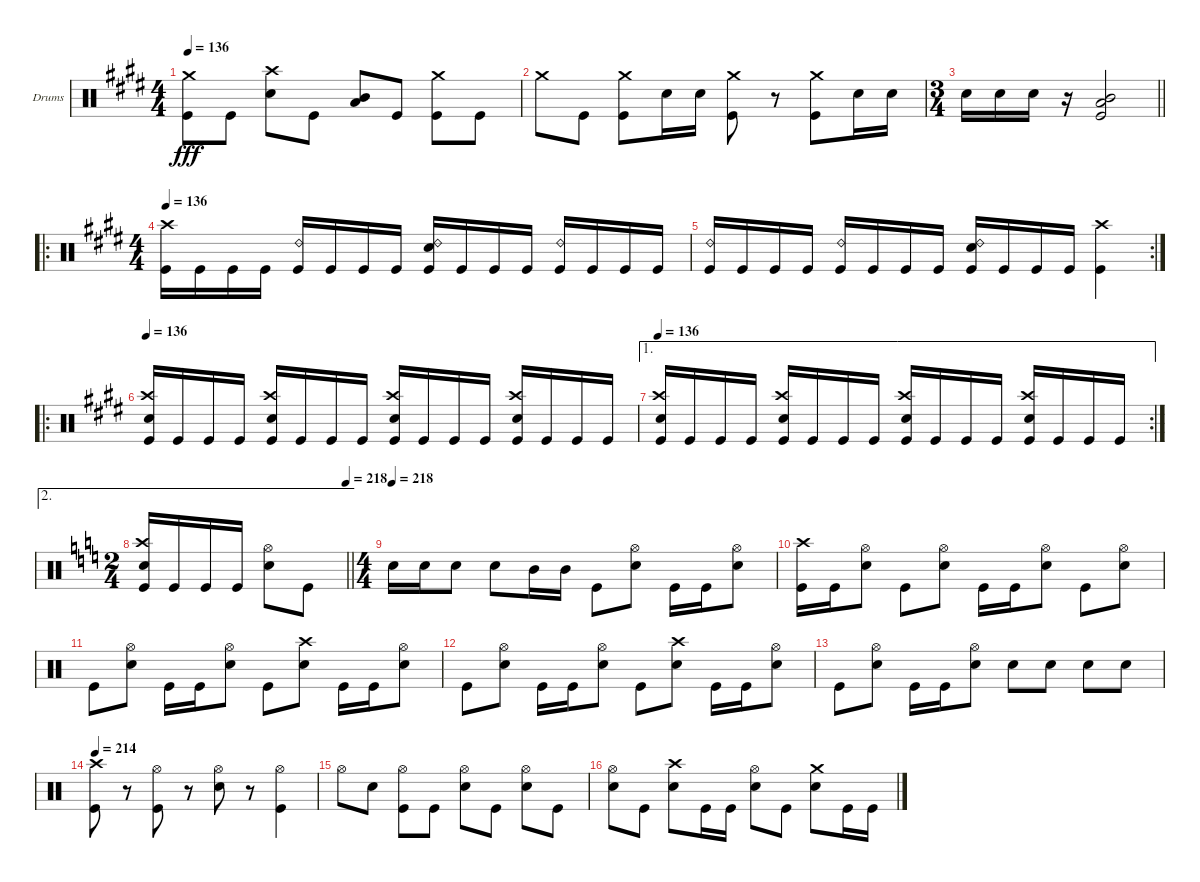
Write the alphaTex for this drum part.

\bracketExtendMode groupsimilarinstruments
\firstSystemTrackNameOrientation horizontal
\otherSystemsTrackNameOrientation horizontal
\track ("Drumkit" "Drums") {instrument percussion}
\staff {score}
\articulation defaults
\ts (4 4)
\tempo 136
\clef neutral
\ks e
("Crash medium (hit)" "Kick (hit)"{t}).8{dy fff} "Kick (hit)".8 ("Crash high (hit)" "Snare (hit) 2").8 "Kick (hit)".8 ("Mid Tom (hit)" "Low Tom (hit)").8 "Kick (hit)".8 ("Crash medium (hit)" "Kick (hit)").8 "Kick (hit)".8 |
"Crash medium (hit)".8 "Kick (hit)".8 ("Crash medium (hit)" "Kick (hit)").8 "Snare (hit) 2".16 "Snare (hit) 2".16 ("Crash medium (hit)" "Kick (hit)").8 r.8 ("Crash medium (hit)" "Kick (hit)").8 "Snare (hit) 2".16 "Snare (hit) 2".16 |
\ts (3 4)
\beaming (8 2 2 2)
\barLineRight lightlight "Snare (hit) 2".16 "Snare (hit) 2".16 "Snare (hit) 2".16
r.16 ("Mid Tom (hit)" "Low Tom (hit)" "Kick (hit)").2 |
\ro
\ts (4 4)
\beaming (8 2 2 2 2)
\tempo 136
("Crash high (hit)" "Kick (hit)").16 "Kick (hit)".16 "Kick (hit)".16 "Kick (hit)".16 ("Ride (bell) 2" "Kick (hit)").16 "Kick (hit)".16 "Kick (hit)".16 "Kick (hit)".16 ("Ride (bell) 2" "Snare (hit) 2" "Kick (hit)").16 "Kick (hit)".16 "Kick (hit)".16 "Kick (hit)".16 ("Ride (bell) 2" "Kick (hit)").16 "Kick (hit)".16 "Kick (hit)".16 "Kick (hit)".16 |
\rc 2
("Ride (bell) 2" "Kick (hit)").16 "Kick (hit)".16 "Kick (hit)".16 "Kick (hit)".16 ("Ride (bell) 2" "Kick (hit)").16 "Kick (hit)".16 "Kick (hit)".16 "Kick (hit)".16 ("Ride (bell) 2" "Snare (hit) 2" "Kick (hit)").16 "Kick (hit)".16 "Kick (hit)".16 "Kick (hit)".16 ("Crash high (hit)" "Kick (hit)").4 |
\ro
\tempo 136
("Crash high (hit)" "Snare (hit) 2" "Kick (hit)").16 "Kick (hit)".16 "Kick (hit)".16 "Kick (hit)".16 ("Crash high (hit)" "Snare (hit) 2" "Kick (hit)").16 "Kick (hit)".16 "Kick (hit)".16 "Kick (hit)".16 ("Crash high (hit)" "Snare (hit) 2" "Kick (hit)").16 "Kick (hit)".16 "Kick (hit)".16 "Kick (hit)".16 ("Crash high (hit)" "Snare (hit) 2" "Kick (hit)").16 "Kick (hit)".16 "Kick (hit)".16 "Kick (hit)".16 |
\ae 1
\rc 2
\tempo 136
("Crash high (hit)" "Snare (hit) 2" "Kick (hit)").16 "Kick (hit)".16 "Kick (hit)".16 "Kick (hit)".16 ("Crash high (hit)" "Snare (hit) 2" "Kick (hit)").16 "Kick (hit)".16 "Kick (hit)".16 "Kick (hit)".16 ("Crash high (hit)" "Snare (hit) 2" "Kick (hit)").16 "Kick (hit)".16 "Kick (hit)".16 "Kick (hit)".16 ("Crash high (hit)" "Snare (hit) 2" "Kick (hit)").16 "Kick (hit)".16 "Kick (hit)".16 "Kick (hit)".16 |
\ae 2
\ts (2 4)
\beaming (8 2 2)
\tempo (218 1)
\barLineRight lightlight
\ks c
("Crash high (hit)" "Snare (hit) 2" "Kick (hit)").16 "Kick (hit)".16 "Kick (hit)".16 "Kick (hit)".16 ("Hi-Hat (open)" "Snare (hit) 2").8 "Kick (hit)".8 |
\ts (4 4)
\beaming (8 2 2 2 2)
\tempo (218)
"Snare (hit) 2".16 "Snare (hit) 2".16 "Snare (hit) 2".8 "Snare (hit) 2".8 "Mid Tom (hit)".16 "Mid Tom (hit)".16 "Kick (hit)".8 ("Hi-Hat (open)" "Snare (hit) 2").8 "Kick (hit)".16 "Kick (hit)".16 ("Hi-Hat (open)" "Snare (hit) 2").8 |
("Crash high (hit)" "Kick (hit)").16 "Kick (hit)".16 ("Hi-Hat (open)" "Snare (hit) 2").8 "Kick (hit)".8 ("Hi-Hat (open)" "Snare (hit) 2").8 "Kick (hit)".16 "Kick (hit)".16 ("Hi-Hat (open)" "Snare (hit) 2").8 "Kick (hit)".8 ("Hi-Hat (open)" "Snare (hit) 2").8 |
"Kick (hit)".8 ("Hi-Hat (open)" "Snare (hit) 2").8 "Kick (hit)".16 "Kick (hit)".16 ("Hi-Hat (open)" "Snare (hit) 2").8 "Kick (hit)".8 ("Crash high (hit)" "Snare (hit) 2").8 "Kick (hit)".16 "Kick (hit)".16 ("Hi-Hat (open)" "Snare (hit) 2").8 |
"Kick (hit)".8 ("Hi-Hat (open)" "Snare (hit) 2").8 "Kick (hit)".16 "Kick (hit)".16 ("Hi-Hat (open)" "Snare (hit) 2").8 "Kick (hit)".8 ("Crash high (hit)" "Snare (hit) 2").8 "Kick (hit)".16 "Kick (hit)".16 ("Hi-Hat (open)" "Snare (hit) 2").8 |
"Kick (hit)".8 ("Hi-Hat (open)" "Snare (hit) 2").8 "Kick (hit)".16 "Kick (hit)".16 ("Hi-Hat (open)" "Snare (hit) 2").8 "Snare (hit) 2".8 "Snare (hit) 2".8 "Snare (hit) 2".8 "Snare (hit) 2".8 |
\tempo 214
("Crash high (hit)" "Kick (hit)").8 r.8 ("Hi-Hat (open)" "Kick (hit)").8 r.8 ("Hi-Hat (open)" "Snare (hit) 2").8 r.8 ("Hi-Hat (open)" "Kick (hit)").4 |
"Hi-Hat (open)".8 "Snare (hit) 2".8 ("Hi-Hat (open)" "Kick (hit)").8 "Kick (hit)".8 ("Hi-Hat (open)" "Snare (hit) 2").8 "Kick (hit)".8 ("Hi-Hat (open)" "Snare (hit) 2").8 "Kick (hit)".8 |
("Hi-Hat (open)" "Snare (hit) 2").8 "Kick (hit)".8 ("Crash high (hit)" "Snare (hit) 2").8 "Kick (hit)".16 "Kick (hit)".16 ("Hi-Hat (open)" "Snare (hit) 2").8 "Kick (hit)".8 ("Crash medium (hit)" "Snare (hit) 2").8 "Kick (hit)".16 "Kick (hit)".16
